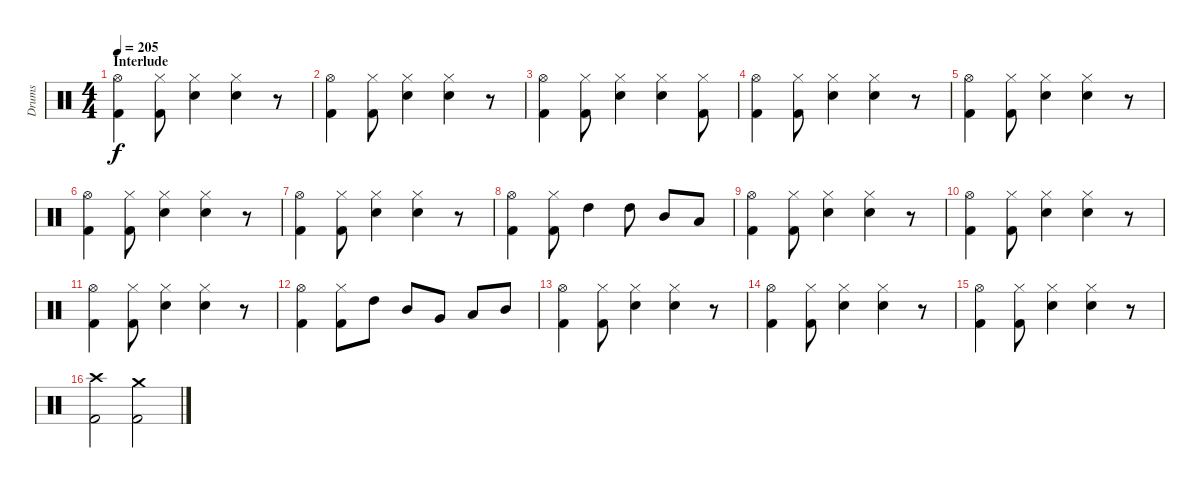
\track ("Drums" "Drums") {instrument percussion}
\staff {score}
\articulation defaults
\ts (4 4)
\section ("" "Interlude")
\tempo 205
\clef neutral
\ks c
("Hi-Hat (open)" "Kick (hit) 2").4{dy f} ("Hi-Hat (closed)" "Kick (hit) 2").8 ("Electric Snare (hit)" "Hi-Hat (closed)").4 ("Hi-Hat (closed)" "Electric Snare (hit)").4 r.8 |
("Hi-Hat (open)" "Kick (hit) 2").4 ("Hi-Hat (closed)" "Kick (hit) 2").8 ("Electric Snare (hit)" "Hi-Hat (closed)").4 ("Hi-Hat (closed)" "Electric Snare (hit)").4 r.8 |
("Hi-Hat (open)" "Kick (hit) 2").4 ("Hi-Hat (closed)" "Kick (hit) 2").8 ("Electric Snare (hit)" "Hi-Hat (closed)").4 ("Hi-Hat (closed)" "Electric Snare (hit)").4 ("Hi-Hat (closed)" "Kick (hit) 2").8 |
("Hi-Hat (open)" "Kick (hit) 2").4 ("Hi-Hat (closed)" "Kick (hit) 2").8 ("Electric Snare (hit)" "Hi-Hat (closed)").4 ("Hi-Hat (closed)" "Electric Snare (hit)").4 r.8 |
("Hi-Hat (open)" "Kick (hit) 2").4 ("Hi-Hat (closed)" "Kick (hit) 2").8 ("Electric Snare (hit)" "Hi-Hat (closed)").4 ("Hi-Hat (closed)" "Electric Snare (hit)").4 r.8 |
("Hi-Hat (open)" "Kick (hit) 2").4 ("Hi-Hat (closed)" "Kick (hit) 2").8 ("Electric Snare (hit)" "Hi-Hat (closed)").4 ("Hi-Hat (closed)" "Electric Snare (hit)").4 r.8 |
("Hi-Hat (open)" "Kick (hit) 2").4 ("Hi-Hat (closed)" "Kick (hit) 2").8 ("Electric Snare (hit)" "Hi-Hat (closed)").4 ("Hi-Hat (closed)" "Electric Snare (hit)").4 r.8 |
("Hi-Hat (open)" "Kick (hit) 2").4 ("Hi-Hat (closed)" "Kick (hit) 2").8 "High Tom (hit)".4 "High Tom (hit)".8 "Mid Tom (hit)".8 "Low Tom (hit)".8 |
("Hi-Hat (open)" "Kick (hit) 2").4 ("Hi-Hat (closed)" "Kick (hit) 2").8 ("Electric Snare (hit)" "Hi-Hat (closed)").4 ("Hi-Hat (closed)" "Electric Snare (hit)").4 r.8 |
("Hi-Hat (open)" "Kick (hit) 2").4 ("Hi-Hat (closed)" "Kick (hit) 2").8 ("Electric Snare (hit)" "Hi-Hat (closed)").4 ("Hi-Hat (closed)" "Electric Snare (hit)").4 r.8 |
("Hi-Hat (open)" "Kick (hit) 2").4 ("Hi-Hat (closed)" "Kick (hit) 2").8 ("Electric Snare (hit)" "Hi-Hat (closed)").4 ("Hi-Hat (closed)" "Electric Snare (hit)").4 r.8 |
("Hi-Hat (open)" "Kick (hit) 2").4 ("Hi-Hat (closed)" "Kick (hit) 2").8 "High Tom (hit)".8 "Mid Tom (hit)".8 "Very Low Tom (hit)".8 "Low Tom (hit)".8 "Mid Tom (hit)".8 |
("Hi-Hat (open)" "Kick (hit) 2").4 ("Hi-Hat (closed)" "Kick (hit) 2").8 ("Electric Snare (hit)" "Hi-Hat (closed)").4 ("Hi-Hat (closed)" "Electric Snare (hit)").4 r.8 |
("Hi-Hat (open)" "Kick (hit) 2").4 ("Hi-Hat (closed)" "Kick (hit) 2").8 ("Electric Snare (hit)" "Hi-Hat (closed)").4 ("Hi-Hat (closed)" "Electric Snare (hit)").4 r.8 |
("Hi-Hat (open)" "Kick (hit) 2").4 ("Hi-Hat (closed)" "Kick (hit) 2").8 ("Electric Snare (hit)" "Hi-Hat (closed)").4 ("Hi-Hat (closed)" "Electric Snare (hit)").4 r.8 |
("Crash high (hit)" "Kick (hit) 2").2 ("Crash medium (hit)" "Kick (hit) 2").2
